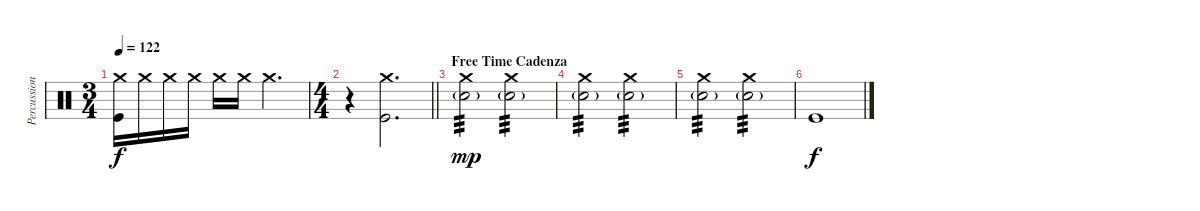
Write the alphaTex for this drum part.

\track ("Percussion" "Percussion") {instrument percussion}
\staff {score}
\articulation defaults
\ts (3 4)
\tempo 122
\clef neutral
\ks c
("Crash medium (hit)" "Kick (hit)").16{dy f} "Crash medium (hit)".16 "Crash medium (hit)".16 "Crash medium (hit)".16 "Crash medium (hit)".16 "Crash medium (hit)".16 "Crash medium (hit)".4{d} |
\ts (4 4)
\barLineRight lightlight
r.4 ("Crash medium (hit)" "Kick (hit)").2{d} |
\section ("" "Free Time Cadenza")
("Crash medium (hit)" "Snare (hit) 2"{g}).2{tp 3 dy mp} ("Crash medium (hit)" "Snare (hit) 2"{g}).2{tp 3} |
("Crash medium (hit)" "Snare (hit) 2"{g}).2{tp 3} ("Crash medium (hit)" "Snare (hit) 2"{g}).2{tp 3} |
("Crash medium (hit)" "Snare (hit) 2"{g}).2{tp 3} ("Crash medium (hit)" "Snare (hit) 2"{g}).2{tp 3} |
"Kick (hit)".1{dy f}
